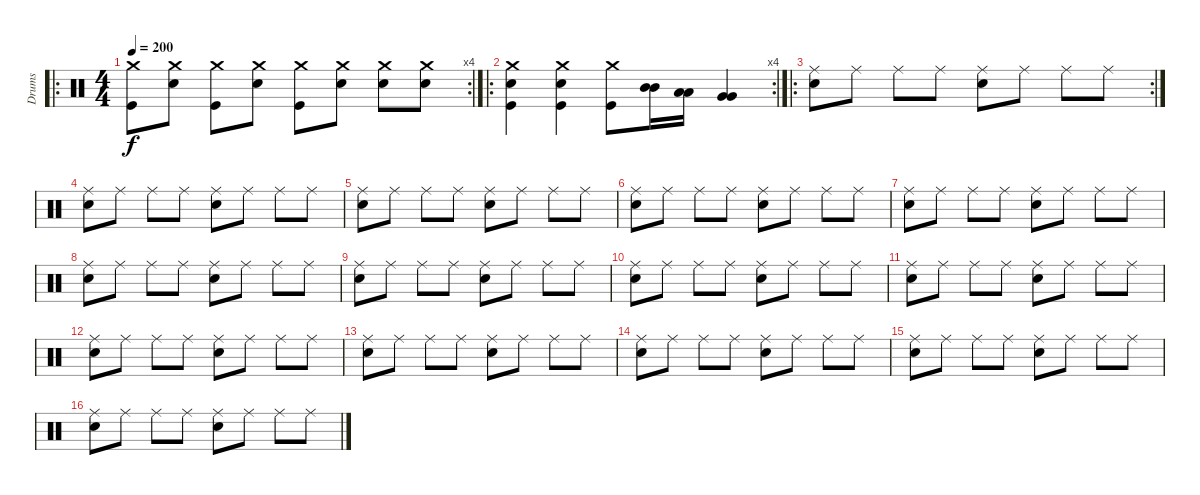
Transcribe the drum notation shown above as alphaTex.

\track ("Drums" "Drums") {instrument percussion}
\staff {score}
\articulation defaults
\ro
\rc 4
\ts (4 4)
\tempo 200
\clef neutral
\ks c
("Crash medium (hit)" "Kick (hit)").8{dy f} ("Crash medium (hit)" "Electric Snare (hit)").8 ("Crash medium (hit)" "Kick (hit)").8 ("Crash medium (hit)" "Electric Snare (hit)").8 ("Crash medium (hit)" "Kick (hit)").8 ("Crash medium (hit)" "Electric Snare (hit)").8 ("Crash medium (hit)" "Electric Snare (hit)").8 ("Crash medium (hit)" "Electric Snare (hit)").8 |
\ro
\rc 4
("Crash medium (hit)" "Kick (hit)" "Electric Snare (hit)").4 ("Crash medium (hit)" "Kick (hit)" "Electric Snare (hit)").4 ("Crash medium (hit)" "Kick (hit)").8 ("Mid Tom (hit)" "Mid Tom (hit)").16 ("Low Tom (hit)" "Low Tom (hit)").16 ("Very Low Tom (hit)" "Very Low Tom (hit)").4 |
\ro
\rc 2
("Electric Snare (hit)" "Ride (middle)").8 "Ride (middle)".8 "Ride (middle)".8 "Ride (middle)".8 ("Electric Snare (hit)" "Ride (middle)").8 "Ride (middle)".8 "Ride (middle)".8 "Ride (middle)".8 |
("Electric Snare (hit)" "Ride (middle)").8 "Ride (middle)".8 "Ride (middle)".8 "Ride (middle)".8 ("Electric Snare (hit)" "Ride (middle)").8 "Ride (middle)".8 "Ride (middle)".8 "Ride (middle)".8 |
("Electric Snare (hit)" "Ride (middle)").8 "Ride (middle)".8 "Ride (middle)".8 "Ride (middle)".8 ("Electric Snare (hit)" "Ride (middle)").8 "Ride (middle)".8 "Ride (middle)".8 "Ride (middle)".8 |
("Electric Snare (hit)" "Ride (middle)").8 "Ride (middle)".8 "Ride (middle)".8 "Ride (middle)".8 ("Electric Snare (hit)" "Ride (middle)").8 "Ride (middle)".8 "Ride (middle)".8 "Ride (middle)".8 |
("Electric Snare (hit)" "Ride (middle)").8 "Ride (middle)".8 "Ride (middle)".8 "Ride (middle)".8 ("Electric Snare (hit)" "Ride (middle)").8 "Ride (middle)".8 "Ride (middle)".8 "Ride (middle)".8 |
("Electric Snare (hit)" "Ride (middle)").8 "Ride (middle)".8 "Ride (middle)".8 "Ride (middle)".8 ("Electric Snare (hit)" "Ride (middle)").8 "Ride (middle)".8 "Ride (middle)".8 "Ride (middle)".8 |
("Electric Snare (hit)" "Ride (middle)").8 "Ride (middle)".8 "Ride (middle)".8 "Ride (middle)".8 ("Electric Snare (hit)" "Ride (middle)").8 "Ride (middle)".8 "Ride (middle)".8 "Ride (middle)".8 |
("Electric Snare (hit)" "Ride (middle)").8 "Ride (middle)".8 "Ride (middle)".8 "Ride (middle)".8 ("Electric Snare (hit)" "Ride (middle)").8 "Ride (middle)".8 "Ride (middle)".8 "Ride (middle)".8 |
("Electric Snare (hit)" "Ride (middle)").8 "Ride (middle)".8 "Ride (middle)".8 "Ride (middle)".8 ("Electric Snare (hit)" "Ride (middle)").8 "Ride (middle)".8 "Ride (middle)".8 "Ride (middle)".8 |
("Electric Snare (hit)" "Ride (middle)").8 "Ride (middle)".8 "Ride (middle)".8 "Ride (middle)".8 ("Electric Snare (hit)" "Ride (middle)").8 "Ride (middle)".8 "Ride (middle)".8 "Ride (middle)".8 |
("Electric Snare (hit)" "Ride (middle)").8 "Ride (middle)".8 "Ride (middle)".8 "Ride (middle)".8 ("Electric Snare (hit)" "Ride (middle)").8 "Ride (middle)".8 "Ride (middle)".8 "Ride (middle)".8 |
("Electric Snare (hit)" "Ride (middle)").8 "Ride (middle)".8 "Ride (middle)".8 "Ride (middle)".8 ("Electric Snare (hit)" "Ride (middle)").8 "Ride (middle)".8 "Ride (middle)".8 "Ride (middle)".8 |
("Electric Snare (hit)" "Ride (middle)").8 "Ride (middle)".8 "Ride (middle)".8 "Ride (middle)".8 ("Electric Snare (hit)" "Ride (middle)").8 "Ride (middle)".8 "Ride (middle)".8 "Ride (middle)".8 |
("Electric Snare (hit)" "Ride (middle)").8 "Ride (middle)".8 "Ride (middle)".8 "Ride (middle)".8 ("Electric Snare (hit)" "Ride (middle)").8 "Ride (middle)".8 "Ride (middle)".8 "Ride (middle)".8
